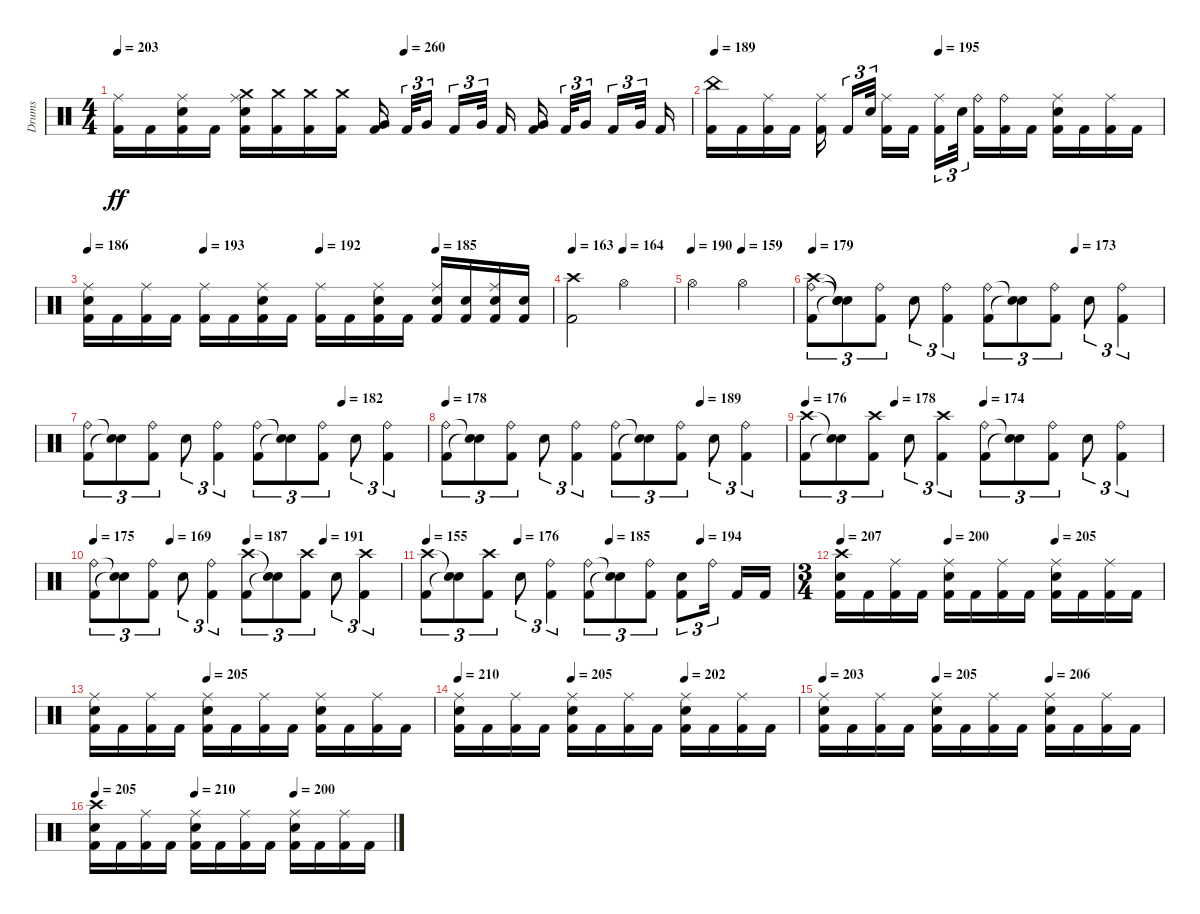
\track ("Drums" "Drums") {instrument percussion}
\staff {score}
\articulation defaults
\ts (4 4)
\tempo 203
\tempo (260 0.5)
\clef neutral
\ks c
("Kick (hit) 2" "Ride (middle)").16{dy ff} "Kick (hit) 2".16 ("Kick (hit) 2" "Snare (hit) 2" "Ride (middle)").16 "Kick (hit) 2".16 ("Kick (hit) 2" "Snare (hit) 2" "Ride (middle)" "Crash medium (hit)").16 ("Kick (hit) 2" "Crash medium (hit)").16 ("Kick (hit) 2" "Crash medium (hit)").16 ("Kick (hit) 2" "Crash medium (hit)").16 ("Kick (hit) 2" "Very Low Tom (hit)").16{beam splitsecondary} "Kick (hit) 2".32{tu (3 2)} "Very Low Tom (hit)".16{tu (3 2) beam splitsecondary} "Kick (hit) 2".16{tu (3 2)} "Very Low Tom (hit)".32{tu (3 2) beam splitsecondary} "Kick (hit) 2".16 ("Kick (hit) 2" "Very Low Tom (hit)").16{beam splitsecondary} "Kick (hit) 2".32{tu (3 2)} "Very Low Tom (hit)".16{tu (3 2) beam splitsecondary} "Kick (hit) 2".16{tu (3 2)} "Very Low Tom (hit)".32{tu (3 2) beam splitsecondary} "Kick (hit) 2".16 |
\tempo 189
\tempo (195 0.5)
("Kick (hit) 2" "China (hit)").16 "Kick (hit) 2".16 ("Kick (hit) 2" "Ride (middle)").16 "Kick (hit) 2".16 ("Kick (hit) 2" "Ride (middle)").16{beam splitsecondary} "Kick (hit) 2".16{tu (3 2)} "Snare (hit) 2".32{tu (3 2) beam splitsecondary} ("Kick (hit) 2" "Ride (middle)").16 "Kick (hit) 2".16 ("Kick (hit) 2" "Ride (middle)").16{tu (3 2)} "Snare (hit) 2".32{tu (3 2) beam splitsecondary} ("Kick (hit) 2" "Ride (bell)").16 ("Kick (hit) 2" "Ride (bell)").16 "Kick (hit) 2".16 ("Kick (hit) 2" "Snare (hit) 2" "Ride (middle)").16 "Kick (hit) 2".16 ("Kick (hit) 2" "Ride (middle)").16 "Kick (hit) 2".16 |
\tempo 186
\tempo (193 0.25)
\tempo (192 0.5)
\tempo (185 0.75)
("Kick (hit) 2" "Snare (hit) 2" "Ride (middle)").16 "Kick (hit) 2".16 ("Kick (hit) 2" "Ride (middle)").16 "Kick (hit) 2".16 ("Kick (hit) 2" "Ride (middle)").16 "Kick (hit) 2".16 ("Kick (hit) 2" "Snare (hit) 2" "Ride (middle)").16 "Kick (hit) 2".16 ("Kick (hit) 2" "Ride (middle)").16 "Kick (hit) 2".16 ("Kick (hit) 2" "Snare (hit) 2" "Ride (middle)").16 "Kick (hit) 2".16 ("Kick (hit) 2" "Snare (hit) 2" "Ride (middle)").16 ("Kick (hit) 2" "Snare (hit) 2").16 ("Kick (hit) 2" "Snare (hit) 2" "Ride (middle)").16 ("Kick (hit) 2" "Snare (hit) 2").16 |
\tempo 163
\tempo (164 0.5)
("Kick (hit) 2" "Crash high (hit)").2 "Hi-Hat (open)".2 |
\tempo 190
\tempo (159 0.5)
"Hi-Hat (open)".2 "Hi-Hat (open)".2 |
\tempo 179
\tempo (173 0.75)
("Kick (hit) 2" "Ride (bell)" "Crash high (hit)").8{tu (3 2)} ("Snare (hit)"{t} "Snare (hit)"{t} "Snare (hit)"{t}).8{tu (3 2)} ("Kick (hit) 2" "Ride (bell)").8{tu (3 2)} "Snare (hit) 2".8{tu (3 2)} ("Kick (hit) 2" "Ride (bell)").4{tu (3 2)} ("Kick (hit) 2" "Ride (bell)").8{tu (3 2)} ("Snare (hit)"{t} "Snare (hit)"{t}).8{tu (3 2)} ("Kick (hit) 2" "Ride (bell)").8{tu (3 2)} "Snare (hit) 2".8{tu (3 2)} ("Kick (hit) 2" "Ride (bell)").4{tu (3 2)} |
\tempo (182 0.75)
("Kick (hit) 2" "Ride (bell)").8{tu (3 2)} ("Snare (hit)"{t} "Snare (hit)"{t}).8{tu (3 2)} ("Kick (hit) 2" "Ride (bell)").8{tu (3 2)} "Snare (hit) 2".8{tu (3 2)} ("Kick (hit) 2" "Ride (bell)").4{tu (3 2)} ("Kick (hit) 2" "Ride (bell)").8{tu (3 2)} ("Snare (hit)"{t} "Snare (hit)"{t}).8{tu (3 2)} ("Kick (hit) 2" "Ride (bell)").8{tu (3 2)} "Snare (hit) 2".8{tu (3 2)} ("Kick (hit) 2" "Ride (bell)").4{tu (3 2)} |
\tempo 178
\tempo (189 0.75)
("Kick (hit) 2" "Ride (bell)").8{tu (3 2)} ("Snare (hit)"{t} "Snare (hit)"{t}).8{tu (3 2)} ("Kick (hit) 2" "Ride (bell)").8{tu (3 2)} "Snare (hit) 2".8{tu (3 2)} ("Kick (hit) 2" "Ride (bell)").4{tu (3 2)} ("Kick (hit) 2" "Ride (bell)").8{tu (3 2)} ("Snare (hit)"{t} "Snare (hit)"{t}).8{tu (3 2)} ("Kick (hit) 2" "Ride (bell)").8{tu (3 2)} "Snare (hit) 2".8{tu (3 2)} ("Kick (hit) 2" "Ride (bell)").4{tu (3 2)} |
\tempo 176
\tempo (178 0.25)
\tempo (174 0.5)
("Kick (hit) 2" "Crash high (hit)").8{tu (3 2)} ("Snare (hit)"{t} "Snare (hit)"{t}).8{tu (3 2)} ("Kick (hit) 2" "Crash high (hit)").8{tu (3 2)} "Snare (hit) 2".8{tu (3 2)} ("Kick (hit) 2" "Crash high (hit)").4{tu (3 2)} ("Kick (hit) 2" "Ride (bell)").8{tu (3 2)} ("Snare (hit)"{t} "Snare (hit)"{t}).8{tu (3 2)} ("Kick (hit) 2" "Ride (bell)").8{tu (3 2)} "Snare (hit) 2".8{tu (3 2)} ("Kick (hit) 2" "Ride (bell)").4{tu (3 2)} |
\tempo 175
\tempo (169 0.25)
\tempo (187 0.5)
\tempo (191 0.75)
("Kick (hit) 2" "Ride (bell)").8{tu (3 2)} ("Snare (hit)"{t} "Snare (hit)"{t}).8{tu (3 2)} ("Kick (hit) 2" "Ride (bell)").8{tu (3 2)} "Snare (hit) 2".8{tu (3 2)} ("Kick (hit) 2" "Ride (bell)").4{tu (3 2)} ("Kick (hit) 2" "Crash high (hit)").8{tu (3 2)} ("Snare (hit)"{t} "Snare (hit)"{t}).8{tu (3 2)} ("Kick (hit) 2" "Crash high (hit)").8{tu (3 2)} "Snare (hit) 2".8{tu (3 2)} ("Kick (hit) 2" "Crash high (hit)").4{tu (3 2)} |
\tempo 155
\tempo (176 0.25)
\tempo (185 0.5)
\tempo (194 0.75)
("Kick (hit) 2" "Crash high (hit)").8{tu (3 2)} ("Snare (hit)"{t} "Snare (hit)"{t}).8{tu (3 2)} ("Kick (hit) 2" "Crash high (hit)").8{tu (3 2)} "Snare (hit) 2".8{tu (3 2)} ("Kick (hit) 2" "Ride (bell)").4{tu (3 2)} ("Kick (hit) 2" "Ride (bell)").8{tu (3 2)} ("Snare (hit)"{t} "Snare (hit)"{t}).8{tu (3 2)} ("Kick (hit) 2" "Ride (bell)").8{tu (3 2)} ("Kick (hit) 2" "Snare (hit) 2").8{tu (3 2)} "Ride (bell)".16{tu (3 2) beam splitsecondary} "Kick (hit) 2".16 "Kick (hit) 2".16 |
\ts (3 4)
\tempo 207
\tempo (200 0.3333333333333333)
\tempo (205 0.6666666666666666)
("Kick (hit) 2" "Snare (hit) 2" "Crash high (hit)").16 "Kick (hit) 2".16 ("Kick (hit) 2" "Ride (middle)").16 "Kick (hit) 2".16 ("Kick (hit) 2" "Snare (hit) 2" "Ride (middle)").16 "Kick (hit) 2".16 ("Kick (hit) 2" "Ride (middle)").16 "Kick (hit) 2".16 ("Kick (hit) 2" "Snare (hit) 2" "Ride (middle)").16 "Kick (hit) 2".16 ("Kick (hit) 2" "Ride (middle)").16 "Kick (hit) 2".16 |
\tempo (205 0.3333333333333333)
("Kick (hit) 2" "Snare (hit) 2" "Ride (middle)").16 "Kick (hit) 2".16 ("Kick (hit) 2" "Ride (middle)").16 "Kick (hit) 2".16 ("Kick (hit) 2" "Snare (hit) 2" "Ride (middle)").16 "Kick (hit) 2".16 ("Kick (hit) 2" "Ride (middle)").16 "Kick (hit) 2".16 ("Kick (hit) 2" "Snare (hit) 2" "Ride (middle)").16 "Kick (hit) 2".16 ("Kick (hit) 2" "Ride (middle)").16 "Kick (hit) 2".16 |
\tempo 210
\tempo (205 0.3333333333333333)
\tempo (202 0.6666666666666666)
("Kick (hit) 2" "Snare (hit) 2" "Ride (middle)").16 "Kick (hit) 2".16 ("Kick (hit) 2" "Ride (middle)").16 "Kick (hit) 2".16 ("Kick (hit) 2" "Snare (hit) 2" "Ride (middle)").16 "Kick (hit) 2".16 ("Kick (hit) 2" "Ride (middle)").16 "Kick (hit) 2".16 ("Kick (hit) 2" "Snare (hit) 2" "Ride (middle)").16 "Kick (hit) 2".16 ("Kick (hit) 2" "Ride (middle)").16 "Kick (hit) 2".16 |
\tempo 203
\tempo (205 0.3333333333333333)
\tempo (206 0.6666666666666666)
("Kick (hit) 2" "Snare (hit) 2" "Ride (middle)").16 "Kick (hit) 2".16 ("Kick (hit) 2" "Ride (middle)").16 "Kick (hit) 2".16 ("Kick (hit) 2" "Snare (hit) 2" "Ride (middle)").16 "Kick (hit) 2".16 ("Kick (hit) 2" "Ride (middle)").16 "Kick (hit) 2".16 ("Kick (hit) 2" "Snare (hit) 2" "Ride (middle)").16 "Kick (hit) 2".16 ("Kick (hit) 2" "Ride (middle)").16 "Kick (hit) 2".16 |
\tempo 205
\tempo (210 0.3333333333333333)
\tempo (200 0.6666666666666666)
("Kick (hit) 2" "Snare (hit) 2" "Crash high (hit)").16 "Kick (hit) 2".16 ("Kick (hit) 2" "Ride (middle)").16 "Kick (hit) 2".16 ("Kick (hit) 2" "Snare (hit) 2" "Ride (middle)").16 "Kick (hit) 2".16 ("Kick (hit) 2" "Ride (middle)").16 "Kick (hit) 2".16 ("Kick (hit) 2" "Snare (hit) 2" "Ride (middle)").16 "Kick (hit) 2".16 ("Kick (hit) 2" "Ride (middle)").16 "Kick (hit) 2".16
